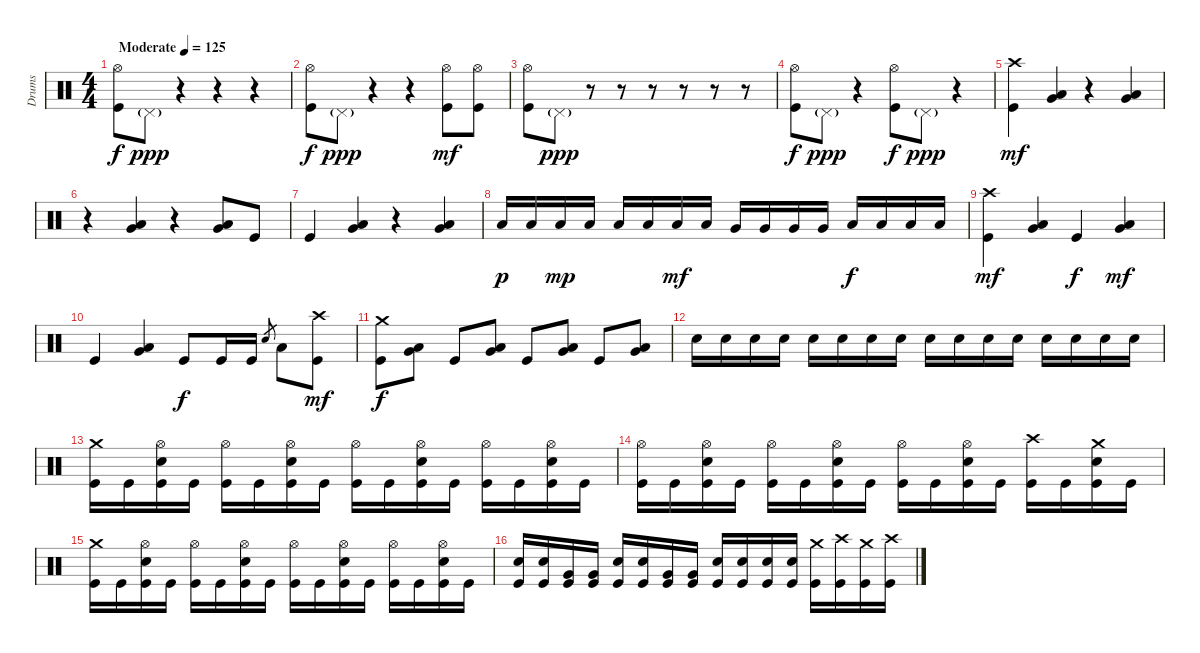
\track ("Drums" "Drums") {instrument percussion}
\staff {score}
\articulation defaults
\ts (4 4)
\tempo (125 "Moderate")
\clef neutral
\ks c
("Hi-Hat (open)" "Kick (hit)").8{dy f} "Pedal Hi-Hat (hit)"{g}.8{dy ppp} r.4 r.4 r.4 |
("Hi-Hat (open)" "Kick (hit)").8{dy f} "Pedal Hi-Hat (hit)"{g}.8{dy ppp} r.4 r.4 ("Hi-Hat (open)" "Kick (hit)").8{dy mf} ("Hi-Hat (open)" "Kick (hit)").8 |
("Hi-Hat (open)" "Kick (hit)").8 "Pedal Hi-Hat (hit)"{g}.8{dy ppp} r.8 r.8 r.8 r.8 r.8 r.8 |
("Hi-Hat (open)" "Kick (hit)").8{dy f} "Pedal Hi-Hat (hit)"{g}.8{dy ppp} r.4 ("Hi-Hat (open)" "Kick (hit)").8{dy f} "Pedal Hi-Hat (hit)"{g}.8{dy ppp} r.4 |
("Crash high (hit)" "Kick (hit)").4{dy mf} ("Very Low Tom (hit)" "Low Floor Tom (hit)").4 r.4 ("Very Low Tom (hit)" "Low Floor Tom (hit)").4 |
r.4 ("Very Low Tom (hit)" "Low Floor Tom (hit)").4 r.4 ("Very Low Tom (hit)" "Low Floor Tom (hit)").8 "Kick (hit)".8 |
"Kick (hit)".4 ("Very Low Tom (hit)" "Low Floor Tom (hit)").4 r.4 ("Very Low Tom (hit)" "Low Floor Tom (hit)").4 |
"Low Tom (hit)".16{dy p} "Low Tom (hit)".16 "Low Tom (hit)".16{dy mp} "Low Tom (hit)".16 "Low Tom (hit)".16 "Low Tom (hit)".16 "Low Tom (hit)".16{dy mf} "Low Tom (hit)".16 "Very Low Tom (hit)".16 "Very Low Tom (hit)".16 "Very Low Tom (hit)".16 "Very Low Tom (hit)".16 "Low Floor Tom (hit)".16{dy f} "Low Floor Tom (hit)".16 "Low Floor Tom (hit)".16 "Low Floor Tom (hit)".16 |
("Crash high (hit)" "Kick (hit)").4{dy mf} ("Very Low Tom (hit)" "Low Floor Tom (hit)").4 "Kick (hit)".4{dy f} ("Very Low Tom (hit)" "Low Floor Tom (hit)").4{dy mf} |
"Kick (hit)".4 ("Very Low Tom (hit)" "Low Floor Tom (hit)").4 "Kick (hit)".8{dy f} "Kick (hit)".16 "Kick (hit)".16 "Electric Snare (hit)".8{gr} "Low Floor Tom (hit)".8 ("Crash high (hit)" "Kick (hit)").8{dy mf} |
("Crash medium (hit)" "Kick (hit)").8{dy f} ("Very Low Tom (hit)" "Low Floor Tom (hit)").8 "Kick (hit)".8 ("Very Low Tom (hit)" "Low Floor Tom (hit)").8 "Kick (hit)".8 ("Very Low Tom (hit)" "Low Floor Tom (hit)").8 "Kick (hit)".8 ("Very Low Tom (hit)" "Low Floor Tom (hit)").8 |
"Electric Snare (hit)".16 "Electric Snare (hit)".16 "Electric Snare (hit)".16 "Electric Snare (hit)".16 "Electric Snare (hit)".16 "Electric Snare (hit)".16 "Electric Snare (hit)".16 "Electric Snare (hit)".16 "Electric Snare (hit)".16 "Electric Snare (hit)".16 "Electric Snare (hit)".16 "Electric Snare (hit)".16 "Electric Snare (hit)".16 "Electric Snare (hit)".16 "Electric Snare (hit)".16 "Electric Snare (hit)".16 |
("Crash medium (hit)" "Kick (hit)").16 "Kick (hit)".16 ("Hi-Hat (open)" "Electric Snare (hit)" "Kick (hit)").16 "Kick (hit)".16 ("Hi-Hat (open)" "Kick (hit)").16 "Kick (hit)".16 ("Hi-Hat (open)" "Electric Snare (hit)" "Kick (hit)").16 "Kick (hit)".16 ("Hi-Hat (open)" "Kick (hit)").16 "Kick (hit)".16 ("Hi-Hat (open)" "Electric Snare (hit)" "Kick (hit)").16 "Kick (hit)".16 ("Hi-Hat (open)" "Kick (hit)").16 "Kick (hit)".16 ("Hi-Hat (open)" "Electric Snare (hit)" "Kick (hit)").16 "Kick (hit)".16 |
("Hi-Hat (open)" "Kick (hit)").16 "Kick (hit)".16 ("Hi-Hat (open)" "Electric Snare (hit)" "Kick (hit)").16 "Kick (hit)".16 ("Hi-Hat (open)" "Kick (hit)").16 "Kick (hit)".16 ("Hi-Hat (open)" "Electric Snare (hit)" "Kick (hit)").16 "Kick (hit)".16 ("Hi-Hat (open)" "Kick (hit)").16 "Kick (hit)".16 ("Hi-Hat (open)" "Electric Snare (hit)" "Kick (hit)").16 "Kick (hit)".16 ("Crash high (hit)" "Kick (hit)").16 "Kick (hit)".16 ("Crash medium (hit)" "Electric Snare (hit)" "Kick (hit)").16 "Kick (hit)".16 |
("Crash medium (hit)" "Kick (hit)").16 "Kick (hit)".16 ("Hi-Hat (open)" "Electric Snare (hit)" "Kick (hit)").16 "Kick (hit)".16 ("Hi-Hat (open)" "Kick (hit)").16 "Kick (hit)".16 ("Hi-Hat (open)" "Electric Snare (hit)" "Kick (hit)").16 "Kick (hit)".16 ("Hi-Hat (open)" "Kick (hit)").16 "Kick (hit)".16 ("Hi-Hat (open)" "Electric Snare (hit)" "Kick (hit)").16 "Kick (hit)".16 ("Hi-Hat (open)" "Kick (hit)").16 "Kick (hit)".16 ("Hi-Hat (open)" "Electric Snare (hit)" "Kick (hit)").16 "Kick (hit)".16 |
("Electric Snare (hit)" "Kick (hit)").16 ("Electric Snare (hit)" "Kick (hit)").16 ("Very Low Tom (hit)" "Kick (hit)").16 ("Very Low Tom (hit)" "Kick (hit)").16 ("Electric Snare (hit)" "Kick (hit)").16 ("Electric Snare (hit)" "Kick (hit)").16 ("Very Low Tom (hit)" "Kick (hit)").16 ("Very Low Tom (hit)" "Kick (hit)").16 ("Electric Snare (hit)" "Kick (hit)").16 ("Electric Snare (hit)" "Kick (hit)").16 ("Electric Snare (hit)" "Kick (hit)").16 ("Electric Snare (hit)" "Kick (hit)").16 ("Crash medium (hit)" "Kick (hit)").16 ("Crash high (hit)" "Kick (hit)").16 ("Crash medium (hit)" "Kick (hit)").16 ("Crash high (hit)" "Kick (hit)").16
